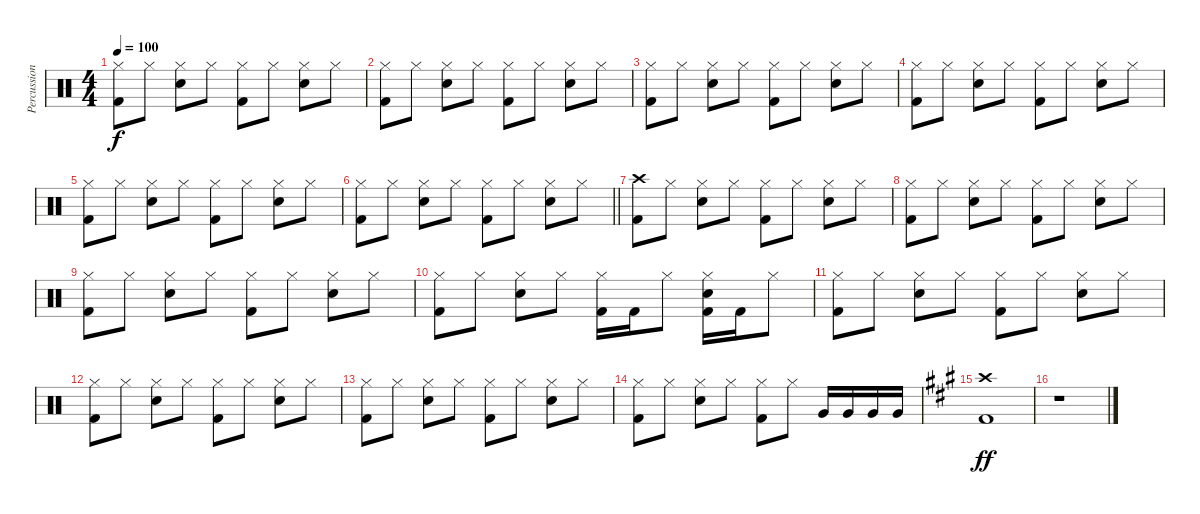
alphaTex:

\track ("Percussion" "Percussion") {instrument percussion}
\staff {score}
\articulation defaults
\ts (4 4)
\tempo 100
\clef neutral
\ks c
("Hi-Hat (closed)" "Kick (hit) 2").8{dy f} "Hi-Hat (closed)".8 ("Hi-Hat (closed)" "Snare (hit) 2").8 "Hi-Hat (closed)".8 ("Hi-Hat (closed)" "Kick (hit) 2").8 "Hi-Hat (closed)".8 ("Hi-Hat (closed)" "Snare (hit) 2").8 "Hi-Hat (closed)".8 |
("Hi-Hat (closed)" "Kick (hit) 2").8 "Hi-Hat (closed)".8 ("Hi-Hat (closed)" "Snare (hit) 2").8 "Hi-Hat (closed)".8 ("Hi-Hat (closed)" "Kick (hit) 2").8 "Hi-Hat (closed)".8 ("Hi-Hat (closed)" "Snare (hit) 2").8 "Hi-Hat (closed)".8 |
("Hi-Hat (closed)" "Kick (hit) 2").8 "Hi-Hat (closed)".8 ("Hi-Hat (closed)" "Snare (hit) 2").8 "Hi-Hat (closed)".8 ("Hi-Hat (closed)" "Kick (hit) 2").8 "Hi-Hat (closed)".8 ("Hi-Hat (closed)" "Snare (hit) 2").8 "Hi-Hat (closed)".8 |
("Hi-Hat (closed)" "Kick (hit) 2").8 "Hi-Hat (closed)".8 ("Hi-Hat (closed)" "Snare (hit) 2").8 "Hi-Hat (closed)".8 ("Hi-Hat (closed)" "Kick (hit) 2").8 "Hi-Hat (closed)".8 ("Hi-Hat (closed)" "Snare (hit) 2").8 "Hi-Hat (closed)".8 |
("Hi-Hat (closed)" "Kick (hit) 2").8 "Hi-Hat (closed)".8 ("Hi-Hat (closed)" "Snare (hit) 2").8 "Hi-Hat (closed)".8 ("Hi-Hat (closed)" "Kick (hit) 2").8 "Hi-Hat (closed)".8 ("Hi-Hat (closed)" "Snare (hit) 2").8 "Hi-Hat (closed)".8 |
\barLineRight lightlight
("Hi-Hat (closed)" "Kick (hit) 2").8 "Hi-Hat (closed)".8 ("Hi-Hat (closed)" "Snare (hit) 2").8 "Hi-Hat (closed)".8 ("Hi-Hat (closed)" "Kick (hit) 2").8 "Hi-Hat (closed)".8 ("Hi-Hat (closed)" "Snare (hit) 2").8 "Hi-Hat (closed)".8 |
("Crash high (hit)" "Kick (hit) 2").8 "Hi-Hat (closed)".8 ("Hi-Hat (closed)" "Snare (hit) 2").8 "Hi-Hat (closed)".8 ("Hi-Hat (closed)" "Kick (hit) 2").8 "Hi-Hat (closed)".8 ("Hi-Hat (closed)" "Snare (hit) 2").8 "Hi-Hat (closed)".8 |
("Hi-Hat (closed)" "Kick (hit) 2").8 "Hi-Hat (closed)".8 ("Hi-Hat (closed)" "Snare (hit) 2").8 "Hi-Hat (closed)".8 ("Hi-Hat (closed)" "Kick (hit) 2").8 "Hi-Hat (closed)".8 ("Hi-Hat (closed)" "Snare (hit) 2").8 "Hi-Hat (closed)".8 |
("Hi-Hat (closed)" "Kick (hit) 2").8 "Hi-Hat (closed)".8 ("Hi-Hat (closed)" "Snare (hit) 2").8 "Hi-Hat (closed)".8 ("Hi-Hat (closed)" "Kick (hit) 2").8 "Hi-Hat (closed)".8 ("Hi-Hat (closed)" "Snare (hit) 2").8 "Hi-Hat (closed)".8 |
("Hi-Hat (closed)" "Kick (hit) 2").8 "Hi-Hat (closed)".8 ("Hi-Hat (closed)" "Snare (hit) 2").8 "Hi-Hat (closed)".8 ("Hi-Hat (closed)" "Kick (hit) 2").16 "Kick (hit) 2".16 "Hi-Hat (closed)".8 ("Hi-Hat (closed)" "Snare (hit) 2" "Kick (hit) 2").16 "Kick (hit) 2".16 "Hi-Hat (closed)".8 |
("Hi-Hat (closed)" "Kick (hit) 2").8 "Hi-Hat (closed)".8 ("Hi-Hat (closed)" "Snare (hit) 2").8 "Hi-Hat (closed)".8 ("Hi-Hat (closed)" "Kick (hit) 2").8 "Hi-Hat (closed)".8 ("Hi-Hat (closed)" "Snare (hit) 2").8 "Hi-Hat (closed)".8 |
("Hi-Hat (closed)" "Kick (hit) 2").8 "Hi-Hat (closed)".8 ("Hi-Hat (closed)" "Snare (hit) 2").8 "Hi-Hat (closed)".8 ("Hi-Hat (closed)" "Kick (hit) 2").8 "Hi-Hat (closed)".8 ("Hi-Hat (closed)" "Snare (hit) 2").8 "Hi-Hat (closed)".8 |
("Hi-Hat (closed)" "Kick (hit) 2").8 "Hi-Hat (closed)".8 ("Hi-Hat (closed)" "Snare (hit) 2").8 "Hi-Hat (closed)".8 ("Hi-Hat (closed)" "Kick (hit) 2").8 "Hi-Hat (closed)".8 ("Hi-Hat (closed)" "Snare (hit) 2").8 "Hi-Hat (closed)".8 |
("Hi-Hat (closed)" "Kick (hit) 2").8 "Hi-Hat (closed)".8 ("Hi-Hat (closed)" "Snare (hit) 2").8 "Hi-Hat (closed)".8 ("Hi-Hat (closed)" "Kick (hit) 2").8 "Hi-Hat (closed)".8 "Very Low Tom (hit)".16 "Very Low Tom (hit)".16 "Very Low Tom (hit)".16 "Very Low Tom (hit)".16 |
\ks a
("Crash high (hit)" "Kick (hit) 2").1{dy ff} |
r.1
